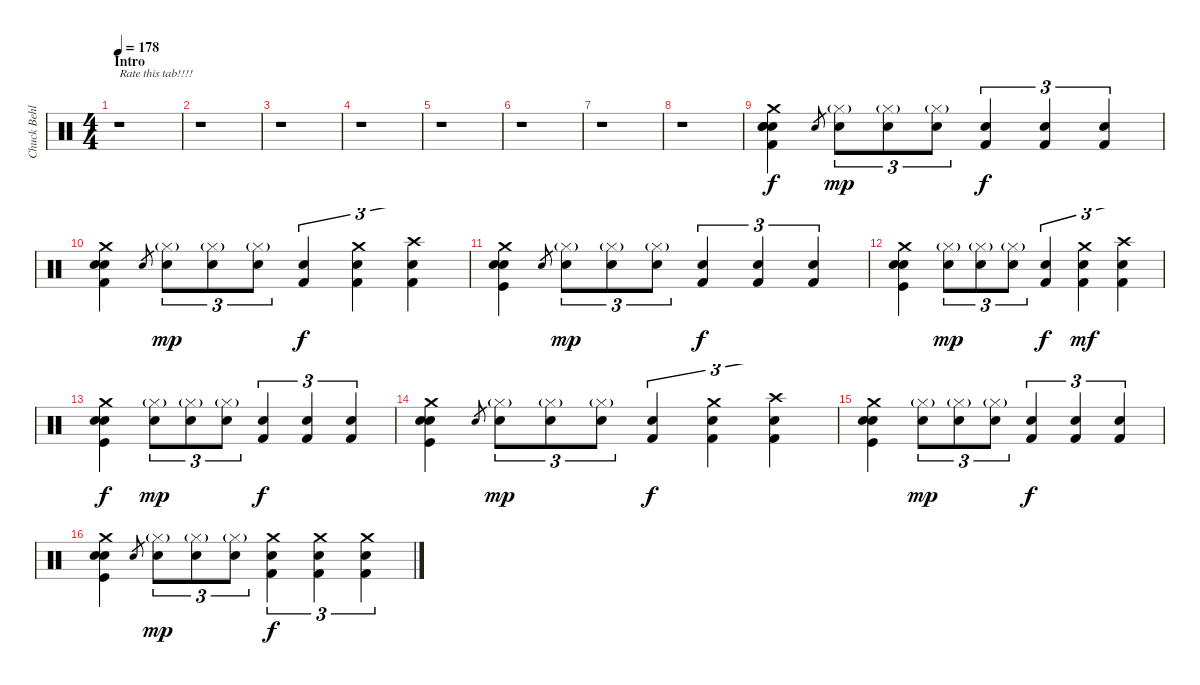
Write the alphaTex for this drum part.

\track ("Chuck Behler" "Chuck Behl") {instrument percussion}
\staff {score}
\articulation defaults
\ts (4 4)
\section ("" "Intro")
\tempo 178
\tempo 114
\tempo 178
\clef neutral
\ks c
r.1{txt "Rate this tab!!!!" dy f} |
r.1 |
r.1 |
r.1 |
r.1 |
r.1 |
r.1 |
r.1 |
("Crash medium (hit)" "Electric Snare (hit)" "Kick (hit) 2" "Electric Snare (hit)" "Electric Snare (hit)").4 "Electric Snare (hit)".8{gr} ("Electric Snare (hit)" "Hi-Hat (closed)"{g}).8{tu (3 2) dy mp} ("Electric Snare (hit)" "Hi-Hat (closed)"{g}).8{tu (3 2)} ("Electric Snare (hit)" "Hi-Hat (closed)"{g}).8{tu (3 2)} ("Electric Snare (hit)" "Kick (hit) 2").4{tu (3 2) dy f} ("Electric Snare (hit)" "Kick (hit) 2").4{tu (3 2)} ("Electric Snare (hit)" "Kick (hit) 2").4{tu (3 2)} |
("Crash medium (hit)" "Electric Snare (hit)" "Kick (hit) 2" "Electric Snare (hit)").4 "Electric Snare (hit)".8{gr} ("Electric Snare (hit)" "Hi-Hat (closed)"{g}).8{tu (3 2) dy mp} ("Electric Snare (hit)" "Hi-Hat (closed)"{g}).8{tu (3 2)} ("Electric Snare (hit)" "Hi-Hat (closed)"{g}).8{tu (3 2)} ("Electric Snare (hit)" "Kick (hit) 2").4{tu (3 2) dy f} ("Electric Snare (hit)" "Crash medium (hit)" "Kick (hit) 2").4{tu (3 2)} ("Electric Snare (hit)" "Crash high (hit)" "Kick (hit) 2").4{tu (3 2)} |
("Crash medium (hit)" "Electric Snare (hit)" "Kick (hit)" "Electric Snare (hit)").4 "Electric Snare (hit)".8{gr} ("Electric Snare (hit)" "Hi-Hat (closed)"{g}).8{tu (3 2) dy mp} ("Electric Snare (hit)" "Hi-Hat (closed)"{g}).8{tu (3 2)} ("Electric Snare (hit)" "Hi-Hat (closed)"{g}).8{tu (3 2)} ("Electric Snare (hit)" "Kick (hit) 2").4{tu (3 2) dy f} ("Electric Snare (hit)" "Kick (hit) 2").4{tu (3 2)} ("Electric Snare (hit)" "Kick (hit) 2").4{tu (3 2)} |
("Crash medium (hit)" "Electric Snare (hit)" "Kick (hit)" "Electric Snare (hit)").4 ("Electric Snare (hit)" "Hi-Hat (closed)"{g}).8{tu (3 2) dy mp} ("Electric Snare (hit)" "Hi-Hat (closed)"{g}).8{tu (3 2)} ("Electric Snare (hit)" "Hi-Hat (closed)"{g}).8{tu (3 2)} ("Electric Snare (hit)" "Kick (hit) 2").4{tu (3 2) dy f} ("Electric Snare (hit)" "Crash medium (hit)" "Kick (hit) 2").4{tu (3 2) dy mf} ("Electric Snare (hit)" "Crash high (hit)" "Kick (hit) 2").4{tu (3 2)} |
("Crash medium (hit)" "Electric Snare (hit)" "Kick (hit)" "Electric Snare (hit)").4{dy f} ("Electric Snare (hit)" "Hi-Hat (closed)"{g}).8{tu (3 2) dy mp} ("Electric Snare (hit)" "Hi-Hat (closed)"{g}).8{tu (3 2)} ("Electric Snare (hit)" "Hi-Hat (closed)"{g}).8{tu (3 2)} ("Electric Snare (hit)" "Kick (hit) 2").4{tu (3 2) dy f} ("Electric Snare (hit)" "Kick (hit) 2").4{tu (3 2)} ("Electric Snare (hit)" "Kick (hit) 2").4{tu (3 2)} |
("Crash medium (hit)" "Electric Snare (hit)" "Kick (hit)" "Electric Snare (hit)").4 "Electric Snare (hit)".8{gr} ("Electric Snare (hit)" "Hi-Hat (closed)"{g}).8{tu (3 2) dy mp} ("Electric Snare (hit)" "Hi-Hat (closed)"{g}).8{tu (3 2)} ("Electric Snare (hit)" "Hi-Hat (closed)"{g}).8{tu (3 2)} ("Electric Snare (hit)" "Kick (hit) 2").4{tu (3 2) dy f} ("Electric Snare (hit)" "Crash medium (hit)" "Kick (hit) 2").4{tu (3 2)} ("Electric Snare (hit)" "Crash high (hit)" "Kick (hit) 2").4{tu (3 2)} |
("Crash medium (hit)" "Electric Snare (hit)" "Kick (hit)" "Electric Snare (hit)").4 ("Electric Snare (hit)" "Hi-Hat (closed)"{g}).8{tu (3 2) dy mp} ("Electric Snare (hit)" "Hi-Hat (closed)"{g}).8{tu (3 2)} ("Electric Snare (hit)" "Hi-Hat (closed)"{g}).8{tu (3 2)} ("Electric Snare (hit)" "Kick (hit) 2").4{tu (3 2) dy f} ("Electric Snare (hit)" "Kick (hit) 2").4{tu (3 2)} ("Electric Snare (hit)" "Kick (hit) 2").4{tu (3 2)} |
("Crash medium (hit)" "Electric Snare (hit)" "Kick (hit)" "Electric Snare (hit)").4 "Electric Snare (hit)".8{gr} ("Electric Snare (hit)" "Hi-Hat (closed)"{g}).8{tu (3 2) dy mp} ("Electric Snare (hit)" "Hi-Hat (closed)"{g}).8{tu (3 2)} ("Electric Snare (hit)" "Hi-Hat (closed)"{g}).8{tu (3 2)} ("Electric Snare (hit)" "Crash medium (hit)" "Kick (hit) 2").4{tu (3 2) dy f} ("Electric Snare (hit)" "Crash medium (hit)" "Kick (hit) 2").4{tu (3 2)} ("Electric Snare (hit)" "Crash medium (hit)" "Kick (hit) 2").4{tu (3 2)}
